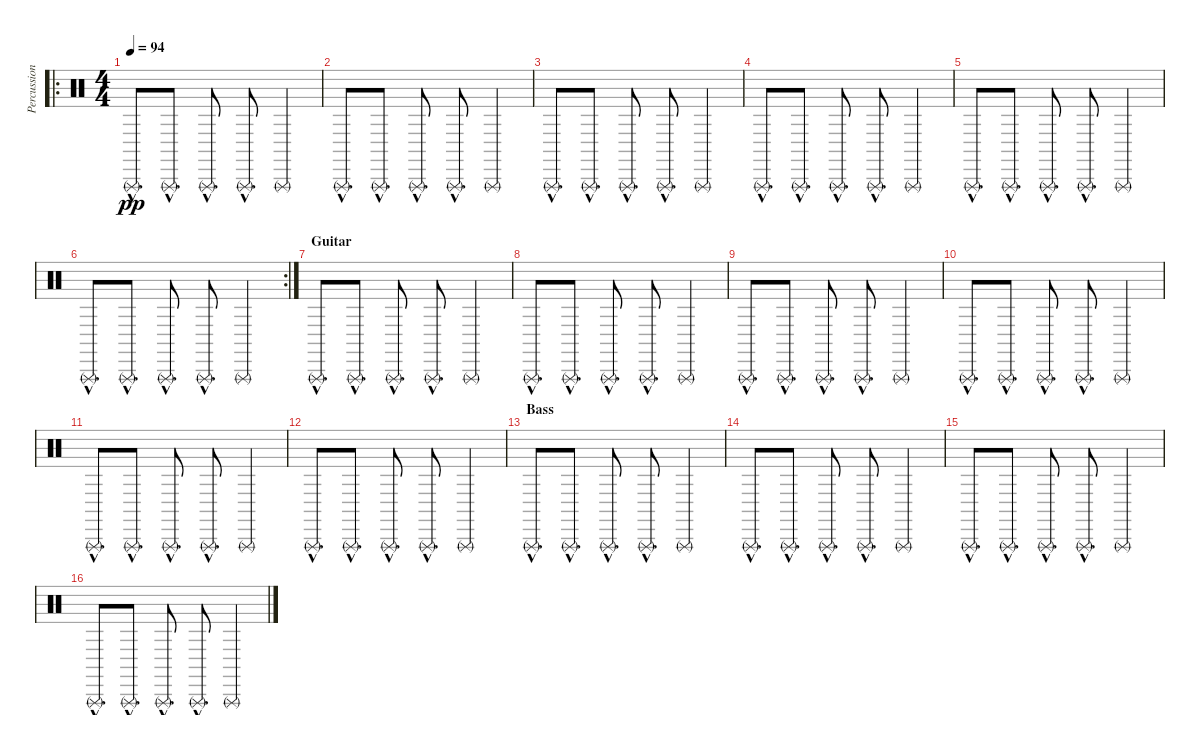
\track ("Percussions" "Percussion") {instrument percussion}
\staff {score}
\articulation defaults
\ro
\ts (4 4)
\tempo 94
\clef neutral
\ks c "Triangle (rnute)"{hac}.8{d dy pp} "Triangle (rnute)"{hac}.8{d} "Triangle (rnute)"{hac}.8{d} "Triangle (rnute)"{hac}.8{d} "Triangle (rnute)".4
|
"Triangle (rnute)"{hac}.8{d} "Triangle (rnute)"{hac}.8{d} "Triangle (rnute)"{hac}.8{d} "Triangle (rnute)"{hac}.8{d} "Triangle (rnute)".4 |
"Triangle (rnute)"{hac}.8{d} "Triangle (rnute)"{hac}.8{d} "Triangle (rnute)"{hac}.8{d} "Triangle (rnute)"{hac}.8{d} "Triangle (rnute)".4 |
"Triangle (rnute)"{hac}.8{d} "Triangle (rnute)"{hac}.8{d} "Triangle (rnute)"{hac}.8{d} "Triangle (rnute)"{hac}.8{d} "Triangle (rnute)".4 |
"Triangle (rnute)"{hac}.8{d} "Triangle (rnute)"{hac}.8{d} "Triangle (rnute)"{hac}.8{d} "Triangle (rnute)"{hac}.8{d} "Triangle (rnute)".4 |
\rc 2 "Triangle (rnute)"{hac}.8{d} "Triangle (rnute)"{hac}.8{d} "Triangle (rnute)"{hac}.8{d} "Triangle (rnute)"{hac}.8{d} "Triangle (rnute)".4
|
\section ("" "Guitar")
"Triangle (rnute)"{hac}.8{d} "Triangle (rnute)"{hac}.8{d} "Triangle (rnute)"{hac}.8{d} "Triangle (rnute)"{hac}.8{d} "Triangle (rnute)".4 |
"Triangle (rnute)"{hac}.8{d} "Triangle (rnute)"{hac}.8{d} "Triangle (rnute)"{hac}.8{d} "Triangle (rnute)"{hac}.8{d} "Triangle (rnute)".4 |
"Triangle (rnute)"{hac}.8{d} "Triangle (rnute)"{hac}.8{d} "Triangle (rnute)"{hac}.8{d} "Triangle (rnute)"{hac}.8{d} "Triangle (rnute)".4 |
"Triangle (rnute)"{hac}.8{d} "Triangle (rnute)"{hac}.8{d} "Triangle (rnute)"{hac}.8{d} "Triangle (rnute)"{hac}.8{d} "Triangle (rnute)".4 |
"Triangle (rnute)"{hac}.8{d} "Triangle (rnute)"{hac}.8{d} "Triangle (rnute)"{hac}.8{d} "Triangle (rnute)"{hac}.8{d} "Triangle (rnute)".4 |
"Triangle (rnute)"{hac}.8{d} "Triangle (rnute)"{hac}.8{d} "Triangle (rnute)"{hac}.8{d} "Triangle (rnute)"{hac}.8{d} "Triangle (rnute)".4 |
\section ("" "Bass")
"Triangle (rnute)"{hac}.8{d} "Triangle (rnute)"{hac}.8{d} "Triangle (rnute)"{hac}.8{d} "Triangle (rnute)"{hac}.8{d} "Triangle (rnute)".4 |
"Triangle (rnute)"{hac}.8{d} "Triangle (rnute)"{hac}.8{d} "Triangle (rnute)"{hac}.8{d} "Triangle (rnute)"{hac}.8{d} "Triangle (rnute)".4 |
"Triangle (rnute)"{hac}.8{d} "Triangle (rnute)"{hac}.8{d} "Triangle (rnute)"{hac}.8{d} "Triangle (rnute)"{hac}.8{d} "Triangle (rnute)".4 |
"Triangle (rnute)"{hac}.8{d} "Triangle (rnute)"{hac}.8{d} "Triangle (rnute)"{hac}.8{d} "Triangle (rnute)"{hac}.8{d} "Triangle (rnute)".4
